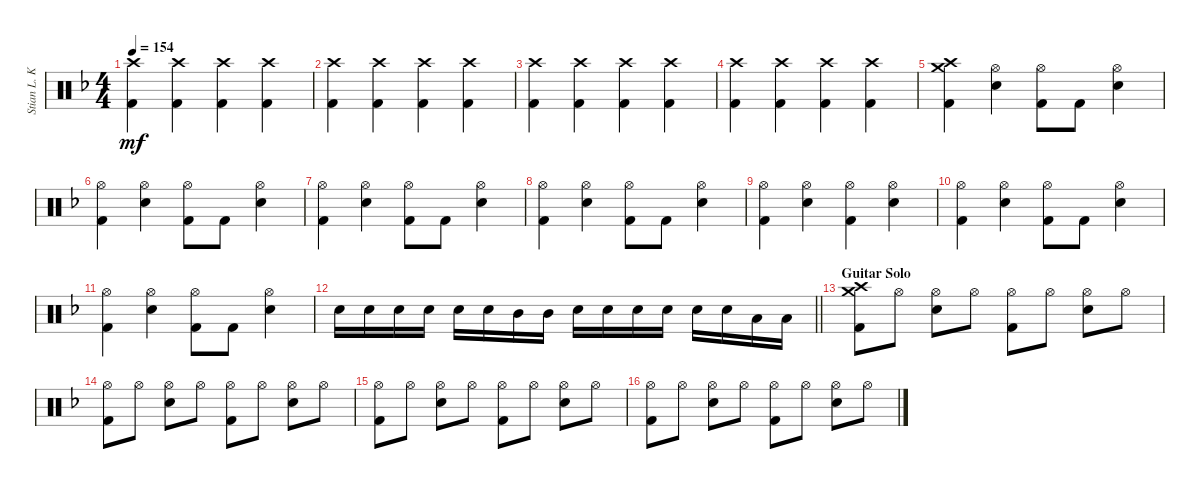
\track ("Stian L. Kristoffersen" "Stian L. K") {instrument percussion}
\staff {score}
\articulation defaults
\ts (4 4)
\tempo 154
\clef neutral
\ks f
("Crash high (hit)" "Kick (hit) 2").4{dy mf} ("Crash high (hit)" "Kick (hit) 2").4 ("Crash high (hit)" "Kick (hit) 2").4 ("Crash high (hit)" "Kick (hit) 2").4 |
("Crash high (hit)" "Kick (hit) 2").4 ("Crash high (hit)" "Kick (hit) 2").4 ("Crash high (hit)" "Kick (hit) 2").4 ("Crash high (hit)" "Kick (hit) 2").4 |
("Crash high (hit)" "Kick (hit) 2").4 ("Crash high (hit)" "Kick (hit) 2").4 ("Crash high (hit)" "Kick (hit) 2").4 ("Crash high (hit)" "Kick (hit) 2").4 |
("Crash high (hit)" "Kick (hit) 2").4 ("Crash high (hit)" "Kick (hit) 2").4 ("Crash high (hit)" "Kick (hit) 2").4 ("Crash high (hit)" "Kick (hit) 2").4 |
("Crash medium (hit)" "Crash high (hit)" "Kick (hit) 2").4 ("Hi-Hat (open)" "Snare (hit) 2").4 ("Hi-Hat (open)" "Kick (hit) 2").8 "Kick (hit) 2".8 ("Hi-Hat (open)" "Snare (hit) 2").4 |
("Hi-Hat (open)" "Kick (hit) 2").4 ("Hi-Hat (open)" "Snare (hit) 2").4 ("Hi-Hat (open)" "Kick (hit) 2").8 "Kick (hit) 2".8 ("Hi-Hat (open)" "Snare (hit) 2").4 |
("Hi-Hat (open)" "Kick (hit) 2").4 ("Hi-Hat (open)" "Snare (hit) 2").4 ("Hi-Hat (open)" "Kick (hit) 2").8 "Kick (hit) 2".8 ("Hi-Hat (open)" "Snare (hit) 2").4 |
("Hi-Hat (open)" "Kick (hit) 2").4 ("Hi-Hat (open)" "Snare (hit) 2").4 ("Hi-Hat (open)" "Kick (hit) 2").8 "Kick (hit) 2".8 ("Hi-Hat (open)" "Snare (hit) 2").4 |
("Hi-Hat (open)" "Kick (hit) 2").4 ("Hi-Hat (open)" "Snare (hit) 2").4 ("Hi-Hat (open)" "Kick (hit) 2").4 ("Hi-Hat (open)" "Snare (hit) 2").4 |
("Hi-Hat (open)" "Kick (hit) 2").4 ("Hi-Hat (open)" "Snare (hit) 2").4 ("Hi-Hat (open)" "Kick (hit) 2").8 "Kick (hit) 2".8 ("Hi-Hat (open)" "Snare (hit) 2").4 |
("Hi-Hat (open)" "Kick (hit) 2").4 ("Hi-Hat (open)" "Snare (hit) 2").4 ("Hi-Hat (open)" "Kick (hit) 2").8 "Kick (hit) 2".8 ("Hi-Hat (open)" "Snare (hit) 2").4 |
\barLineRight lightlight "Snare (hit) 2".16 "Snare (hit) 2".16 "Snare (hit) 2".16 "Snare (hit) 2".16 "Snare (hit) 2".16 "Snare (hit) 2".16 "Mid Tom (hit)".16 "Mid Tom (hit)".16 "Snare (hit) 2".16 "Snare (hit) 2".16 "Snare (hit) 2".16 "Snare (hit) 2".16 "Snare (hit) 2".16 "Snare (hit) 2".16 "Low Tom (hit)".16 "Low Tom (hit)".16
|
\section ("" "Guitar Solo")
("Crash medium (hit)" "Crash high (hit)" "Kick (hit) 2").8 "Hi-Hat (open)".8 ("Hi-Hat (open)" "Snare (hit) 2").8 "Hi-Hat (open)".8 ("Hi-Hat (open)" "Kick (hit) 2").8 "Hi-Hat (open)".8 ("Hi-Hat (open)" "Snare (hit) 2").8 "Hi-Hat (open)".8 |
("Hi-Hat (open)" "Kick (hit) 2").8 "Hi-Hat (open)".8 ("Hi-Hat (open)" "Snare (hit) 2").8 "Hi-Hat (open)".8 ("Hi-Hat (open)" "Kick (hit) 2").8 "Hi-Hat (open)".8 ("Hi-Hat (open)" "Snare (hit) 2").8 "Hi-Hat (open)".8 |
("Hi-Hat (open)" "Kick (hit) 2").8 "Hi-Hat (open)".8 ("Hi-Hat (open)" "Snare (hit) 2").8 "Hi-Hat (open)".8 ("Hi-Hat (open)" "Kick (hit) 2").8 "Hi-Hat (open)".8 ("Hi-Hat (open)" "Snare (hit) 2").8 "Hi-Hat (open)".8 |
("Hi-Hat (open)" "Kick (hit) 2").8 "Hi-Hat (open)".8 ("Hi-Hat (open)" "Snare (hit) 2").8 "Hi-Hat (open)".8 ("Hi-Hat (open)" "Kick (hit) 2").8 "Hi-Hat (open)".8 ("Hi-Hat (open)" "Snare (hit) 2").8 "Hi-Hat (open)".8
